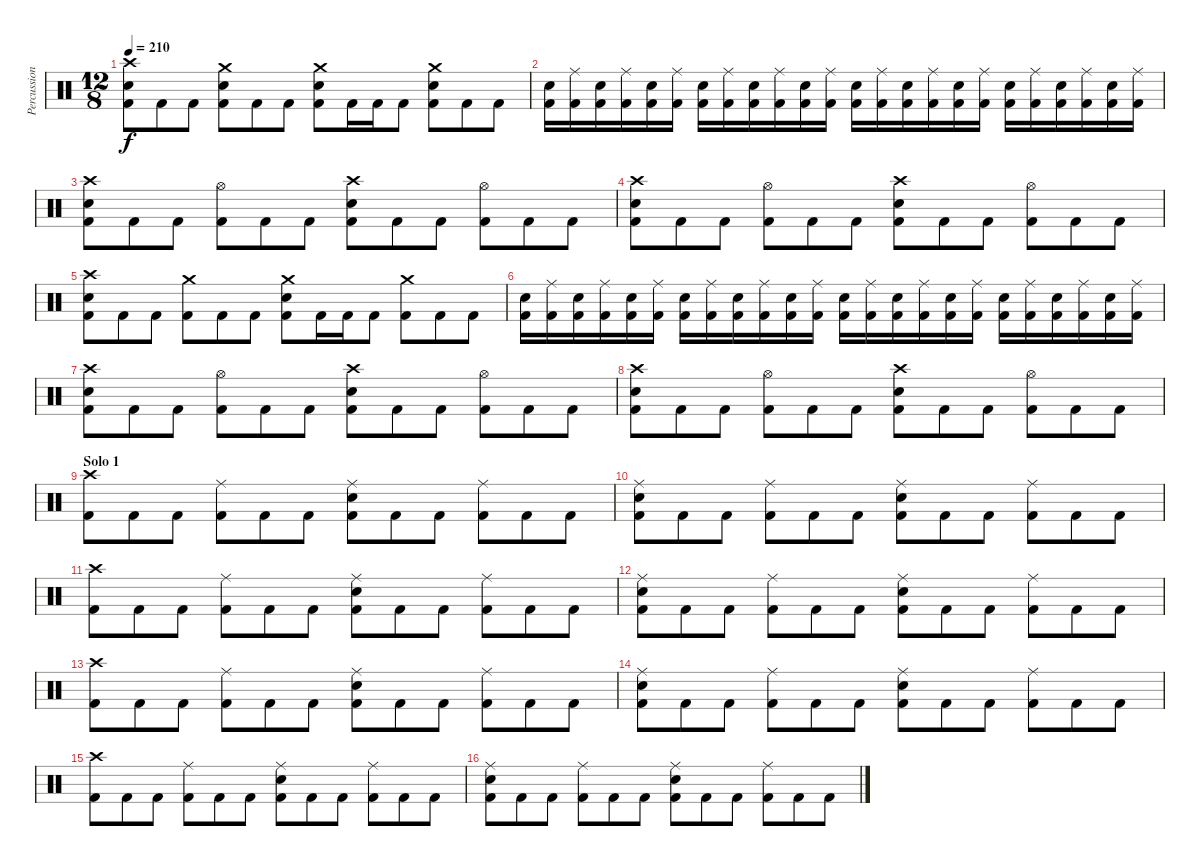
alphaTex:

\track ("Percussion" "Percussion") {instrument percussion}
\staff {score}
\articulation defaults
\ts (12 8)
\tempo 210
\clef neutral
\ks c
("Crash high (hit)" "Snare (hit) 2" "Kick (hit) 2").8{dy f} "Kick (hit) 2".8 "Kick (hit) 2".8 ("Crash medium (hit)" "Snare (hit) 2" "Kick (hit) 2").8 "Kick (hit) 2".8 "Kick (hit) 2".8 ("Crash medium (hit)" "Snare (hit) 2" "Kick (hit) 2").8 "Kick (hit) 2".16 "Kick (hit) 2".16 "Kick (hit) 2".8 ("Crash medium (hit)" "Snare (hit) 2" "Kick (hit) 2").8 "Kick (hit) 2".8 "Kick (hit) 2".8 |
("Snare (hit) 2" "Kick (hit) 2").16 ("Ride (middle)" "Kick (hit) 2").16 ("Snare (hit) 2" "Kick (hit) 2").16 ("Ride (middle)" "Kick (hit) 2").16 ("Snare (hit) 2" "Kick (hit) 2").16 ("Ride (middle)" "Kick (hit) 2").16 ("Snare (hit) 2" "Kick (hit) 2").16 ("Ride (middle)" "Kick (hit) 2").16 ("Snare (hit) 2" "Kick (hit) 2").16 ("Ride (middle)" "Kick (hit) 2").16 ("Snare (hit) 2" "Kick (hit) 2").16 ("Ride (middle)" "Kick (hit) 2").16 ("Snare (hit) 2" "Kick (hit) 2").16 ("Ride (middle)" "Kick (hit) 2").16 ("Snare (hit) 2" "Kick (hit) 2").16 ("Ride (middle)" "Kick (hit) 2").16 ("Snare (hit) 2" "Kick (hit) 2").16 ("Ride (middle)" "Kick (hit) 2").16 ("Snare (hit) 2" "Kick (hit) 2").16 ("Ride (middle)" "Kick (hit) 2").16 ("Snare (hit) 2" "Kick (hit) 2").16 ("Ride (middle)" "Kick (hit) 2").16 ("Snare (hit) 2" "Kick (hit) 2").16 ("Ride (middle)" "Kick (hit) 2").16 |
("Crash high (hit)" "Snare (hit) 2" "Kick (hit) 2").8 "Kick (hit) 2".8 "Kick (hit) 2".8 ("Hi-Hat (open)" "Kick (hit) 2").8 "Kick (hit) 2".8 "Kick (hit) 2".8 ("Crash high (hit)" "Snare (hit) 2" "Kick (hit) 2").8 "Kick (hit) 2".8 "Kick (hit) 2".8 ("Hi-Hat (open)" "Kick (hit) 2").8 "Kick (hit) 2".8 "Kick (hit) 2".8 |
("Crash high (hit)" "Snare (hit) 2" "Kick (hit) 2").8 "Kick (hit) 2".8 "Kick (hit) 2".8 ("Hi-Hat (open)" "Kick (hit) 2").8 "Kick (hit) 2".8 "Kick (hit) 2".8 ("Crash high (hit)" "Snare (hit) 2" "Kick (hit) 2").8 "Kick (hit) 2".8 "Kick (hit) 2".8 ("Hi-Hat (open)" "Kick (hit) 2").8 "Kick (hit) 2".8 "Kick (hit) 2".8 |
("Crash high (hit)" "Snare (hit) 2" "Kick (hit) 2").8 "Kick (hit) 2".8 "Kick (hit) 2".8 ("Crash medium (hit)" "Kick (hit) 2").8 "Kick (hit) 2".8 "Kick (hit) 2".8 ("Crash medium (hit)" "Snare (hit) 2" "Kick (hit) 2").8 "Kick (hit) 2".16 "Kick (hit) 2".16 "Kick (hit) 2".8 ("Crash medium (hit)" "Kick (hit) 2").8 "Kick (hit) 2".8 "Kick (hit) 2".8 |
("Snare (hit) 2" "Kick (hit) 2").16 ("Ride (middle)" "Kick (hit) 2").16 ("Snare (hit) 2" "Kick (hit) 2").16 ("Ride (middle)" "Kick (hit) 2").16 ("Snare (hit) 2" "Kick (hit) 2").16 ("Ride (middle)" "Kick (hit) 2").16 ("Snare (hit) 2" "Kick (hit) 2").16 ("Ride (middle)" "Kick (hit) 2").16 ("Snare (hit) 2" "Kick (hit) 2").16 ("Ride (middle)" "Kick (hit) 2").16 ("Snare (hit) 2" "Kick (hit) 2").16 ("Ride (middle)" "Kick (hit) 2").16 ("Snare (hit) 2" "Kick (hit) 2").16 ("Ride (middle)" "Kick (hit) 2").16 ("Snare (hit) 2" "Kick (hit) 2").16 ("Ride (middle)" "Kick (hit) 2").16 ("Snare (hit) 2" "Kick (hit) 2").16 ("Ride (middle)" "Kick (hit) 2").16 ("Snare (hit) 2" "Kick (hit) 2").16 ("Ride (middle)" "Kick (hit) 2").16 ("Snare (hit) 2" "Kick (hit) 2").16 ("Ride (middle)" "Kick (hit) 2").16 ("Snare (hit) 2" "Kick (hit) 2").16 ("Ride (middle)" "Kick (hit) 2").16 |
("Crash high (hit)" "Snare (hit) 2" "Kick (hit) 2").8 "Kick (hit) 2".8 "Kick (hit) 2".8 ("Hi-Hat (open)" "Kick (hit) 2").8 "Kick (hit) 2".8 "Kick (hit) 2".8 ("Crash high (hit)" "Snare (hit) 2" "Kick (hit) 2").8 "Kick (hit) 2".8 "Kick (hit) 2".8 ("Hi-Hat (open)" "Kick (hit) 2").8 "Kick (hit) 2".8 "Kick (hit) 2".8 |
("Crash high (hit)" "Snare (hit) 2" "Kick (hit) 2").8 "Kick (hit) 2".8 "Kick (hit) 2".8 ("Hi-Hat (open)" "Kick (hit) 2").8 "Kick (hit) 2".8 "Kick (hit) 2".8 ("Crash high (hit)" "Snare (hit) 2" "Kick (hit) 2").8 "Kick (hit) 2".8 "Kick (hit) 2".8 ("Hi-Hat (open)" "Kick (hit) 2").8 "Kick (hit) 2".8 "Kick (hit) 2".8 |
\section ("" "Solo 1")
("Crash high (hit)" "Kick (hit) 2").8 "Kick (hit) 2".8 "Kick (hit) 2".8 ("Ride (middle)" "Kick (hit) 2").8 "Kick (hit) 2".8 "Kick (hit) 2".8 ("Ride (middle)" "Snare (hit) 2" "Kick (hit) 2").8 "Kick (hit) 2".8 "Kick (hit) 2".8 ("Ride (middle)" "Kick (hit) 2").8 "Kick (hit) 2".8 "Kick (hit) 2".8 |
("Ride (middle)" "Snare (hit) 2" "Kick (hit) 2").8 "Kick (hit) 2".8 "Kick (hit) 2".8 ("Ride (middle)" "Kick (hit) 2").8 "Kick (hit) 2".8 "Kick (hit) 2".8 ("Ride (middle)" "Snare (hit) 2" "Kick (hit) 2").8 "Kick (hit) 2".8 "Kick (hit) 2".8 ("Ride (middle)" "Kick (hit) 2").8 "Kick (hit) 2".8 "Kick (hit) 2".8 |
("Crash high (hit)" "Kick (hit) 2").8 "Kick (hit) 2".8 "Kick (hit) 2".8 ("Ride (middle)" "Kick (hit) 2").8 "Kick (hit) 2".8 "Kick (hit) 2".8 ("Ride (middle)" "Snare (hit) 2" "Kick (hit) 2").8 "Kick (hit) 2".8 "Kick (hit) 2".8 ("Ride (middle)" "Kick (hit) 2").8 "Kick (hit) 2".8 "Kick (hit) 2".8 |
("Ride (middle)" "Snare (hit) 2" "Kick (hit) 2").8 "Kick (hit) 2".8 "Kick (hit) 2".8 ("Ride (middle)" "Kick (hit) 2").8 "Kick (hit) 2".8 "Kick (hit) 2".8 ("Ride (middle)" "Snare (hit) 2" "Kick (hit) 2").8 "Kick (hit) 2".8 "Kick (hit) 2".8 ("Ride (middle)" "Kick (hit) 2").8 "Kick (hit) 2".8 "Kick (hit) 2".8 |
("Crash high (hit)" "Kick (hit) 2").8 "Kick (hit) 2".8 "Kick (hit) 2".8 ("Ride (middle)" "Kick (hit) 2").8 "Kick (hit) 2".8 "Kick (hit) 2".8 ("Ride (middle)" "Snare (hit) 2" "Kick (hit) 2").8 "Kick (hit) 2".8 "Kick (hit) 2".8 ("Ride (middle)" "Kick (hit) 2").8 "Kick (hit) 2".8 "Kick (hit) 2".8 |
("Ride (middle)" "Snare (hit) 2" "Kick (hit) 2").8 "Kick (hit) 2".8 "Kick (hit) 2".8 ("Ride (middle)" "Kick (hit) 2").8 "Kick (hit) 2".8 "Kick (hit) 2".8 ("Ride (middle)" "Snare (hit) 2" "Kick (hit) 2").8 "Kick (hit) 2".8 "Kick (hit) 2".8 ("Ride (middle)" "Kick (hit) 2").8 "Kick (hit) 2".8 "Kick (hit) 2".8 |
("Crash high (hit)" "Kick (hit) 2").8 "Kick (hit) 2".8 "Kick (hit) 2".8 ("Ride (middle)" "Kick (hit) 2").8 "Kick (hit) 2".8 "Kick (hit) 2".8 ("Ride (middle)" "Snare (hit) 2" "Kick (hit) 2").8 "Kick (hit) 2".8 "Kick (hit) 2".8 ("Ride (middle)" "Kick (hit) 2").8 "Kick (hit) 2".8 "Kick (hit) 2".8 |
("Ride (middle)" "Snare (hit) 2" "Kick (hit) 2").8 "Kick (hit) 2".8 "Kick (hit) 2".8 ("Ride (middle)" "Kick (hit) 2").8 "Kick (hit) 2".8 "Kick (hit) 2".8 ("Ride (middle)" "Snare (hit) 2" "Kick (hit) 2").8 "Kick (hit) 2".8 "Kick (hit) 2".8 ("Ride (middle)" "Kick (hit) 2").8 "Kick (hit) 2".8 "Kick (hit) 2".8
